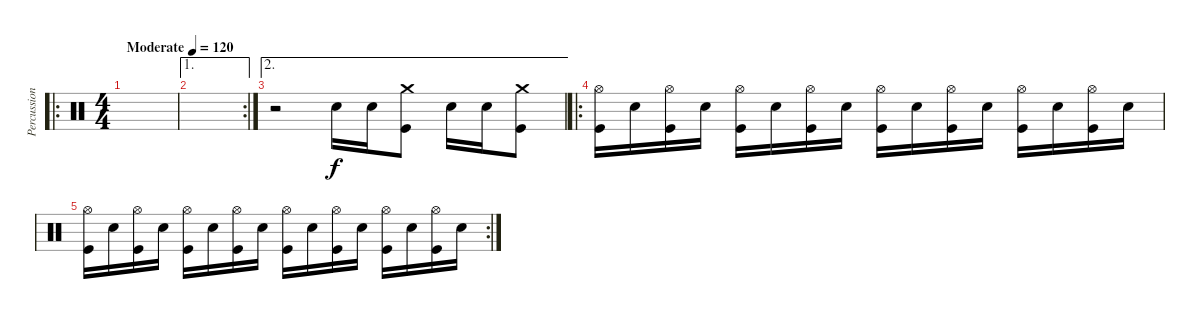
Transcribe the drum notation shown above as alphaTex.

\track ("Percussion" "Percussion") {instrument percussion}
\staff {score}
\articulation defaults
\ro
\ts (4 4)
\tempo (120 "Moderate")
\clef neutral
\ks c
|
\ae 1
\rc 2
|
\ae 2
r.2 "Snare (hit) 2".16 "Snare (hit) 2".16 ("Crash medium (hit)" "Kick (hit)").8 "Snare (hit) 2".16 "Snare (hit) 2".16 ("Crash medium (hit)" "Kick (hit)").8 |
\ro
("Hi-Hat (open)" "Kick (hit)").16 "Snare (hit) 2".16 ("Hi-Hat (open)" "Kick (hit)").16 "Snare (hit) 2".16 ("Hi-Hat (open)" "Kick (hit)").16 "Snare (hit) 2".16 ("Hi-Hat (open)" "Kick (hit)").16 "Snare (hit) 2".16 ("Hi-Hat (open)" "Kick (hit)").16 "Snare (hit) 2".16 ("Hi-Hat (open)" "Kick (hit)").16 "Snare (hit) 2".16 ("Hi-Hat (open)" "Kick (hit)").16 "Snare (hit) 2".16 ("Hi-Hat (open)" "Kick (hit)").16 "Snare (hit) 2".16 |
\rc 2
("Hi-Hat (open)" "Kick (hit)").16 "Snare (hit) 2".16 ("Hi-Hat (open)" "Kick (hit)").16 "Snare (hit) 2".16 ("Hi-Hat (open)" "Kick (hit)").16 "Snare (hit) 2".16 ("Hi-Hat (open)" "Kick (hit)").16 "Snare (hit) 2".16 ("Hi-Hat (open)" "Kick (hit)").16 "Snare (hit) 2".16 ("Hi-Hat (open)" "Kick (hit)").16 "Snare (hit) 2".16 ("Hi-Hat (open)" "Kick (hit)").16 "Snare (hit) 2".16 ("Hi-Hat (open)" "Kick (hit)").16 "Snare (hit) 2".16
